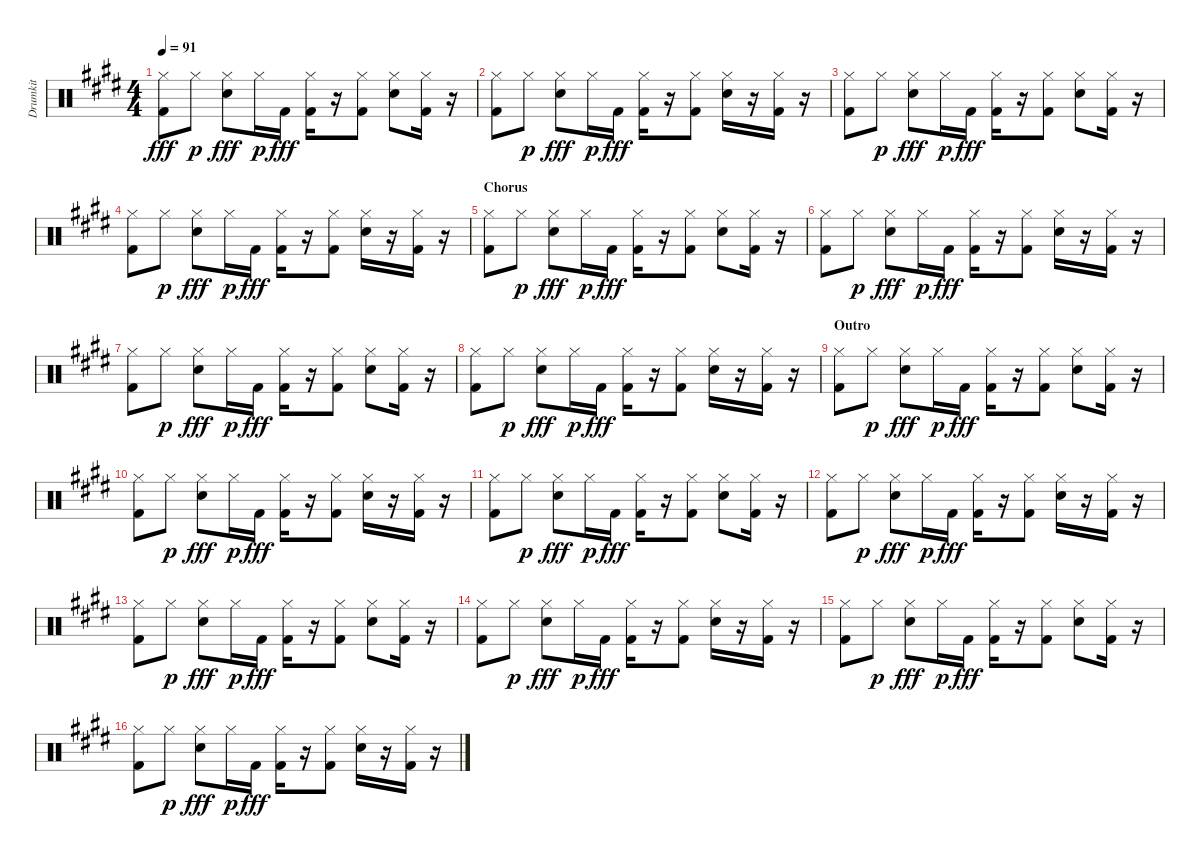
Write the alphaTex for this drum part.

\track ("Drumkit" "Drumkit") {instrument percussion}
\staff {score}
\articulation defaults
\ts (4 4)
\tempo 91
\clef neutral
\ks e
("Kick (hit) 2" "Hi-Hat (closed)").8{dy fff} "Hi-Hat (closed)".8{dy p} ("Snare (hit) 2" "Hi-Hat (closed)").8{dy fff} "Hi-Hat (closed)".16{dy p} "Kick (hit) 2".16{dy fff} ("Kick (hit) 2" "Hi-Hat (closed)").16 r.16 ("Kick (hit) 2" "Hi-Hat (closed)").8 ("Snare (hit) 2" "Hi-Hat (closed)").8 ("Kick (hit) 2" "Hi-Hat (closed)").16 r.16 |
("Kick (hit) 2" "Hi-Hat (closed)").8 "Hi-Hat (closed)".8{dy p} ("Snare (hit) 2" "Hi-Hat (closed)").8{dy fff} "Hi-Hat (closed)".16{dy p} "Kick (hit) 2".16{dy fff} ("Kick (hit) 2" "Hi-Hat (closed)").16 r.16 ("Kick (hit) 2" "Hi-Hat (closed)").8 ("Snare (hit) 2" "Hi-Hat (closed)").16 r.16 ("Kick (hit) 2" "Hi-Hat (closed)").16 r.16 |
("Kick (hit) 2" "Hi-Hat (closed)").8 "Hi-Hat (closed)".8{dy p} ("Snare (hit) 2" "Hi-Hat (closed)").8{dy fff} "Hi-Hat (closed)".16{dy p} "Kick (hit) 2".16{dy fff} ("Kick (hit) 2" "Hi-Hat (closed)").16 r.16 ("Kick (hit) 2" "Hi-Hat (closed)").8 ("Snare (hit) 2" "Hi-Hat (closed)").8 ("Kick (hit) 2" "Hi-Hat (closed)").16 r.16 |
("Kick (hit) 2" "Hi-Hat (closed)").8 "Hi-Hat (closed)".8{dy p} ("Snare (hit) 2" "Hi-Hat (closed)").8{dy fff} "Hi-Hat (closed)".16{dy p} "Kick (hit) 2".16{dy fff} ("Kick (hit) 2" "Hi-Hat (closed)").16 r.16 ("Kick (hit) 2" "Hi-Hat (closed)").8 ("Snare (hit) 2" "Hi-Hat (closed)").16 r.16 ("Kick (hit) 2" "Hi-Hat (closed)").16 r.16 |
\section ("" "Chorus")
("Kick (hit) 2" "Hi-Hat (closed)").8 "Hi-Hat (closed)".8{dy p} ("Snare (hit) 2" "Hi-Hat (closed)").8{dy fff} "Hi-Hat (closed)".16{dy p} "Kick (hit) 2".16{dy fff} ("Kick (hit) 2" "Hi-Hat (closed)").16 r.16 ("Kick (hit) 2" "Hi-Hat (closed)").8 ("Snare (hit) 2" "Hi-Hat (closed)").8 ("Kick (hit) 2" "Hi-Hat (closed)").16 r.16 |
("Kick (hit) 2" "Hi-Hat (closed)").8 "Hi-Hat (closed)".8{dy p} ("Snare (hit) 2" "Hi-Hat (closed)").8{dy fff} "Hi-Hat (closed)".16{dy p} "Kick (hit) 2".16{dy fff} ("Kick (hit) 2" "Hi-Hat (closed)").16 r.16 ("Kick (hit) 2" "Hi-Hat (closed)").8 ("Snare (hit) 2" "Hi-Hat (closed)").16 r.16 ("Kick (hit) 2" "Hi-Hat (closed)").16 r.16 |
("Kick (hit) 2" "Hi-Hat (closed)").8 "Hi-Hat (closed)".8{dy p} ("Snare (hit) 2" "Hi-Hat (closed)").8{dy fff} "Hi-Hat (closed)".16{dy p} "Kick (hit) 2".16{dy fff} ("Kick (hit) 2" "Hi-Hat (closed)").16 r.16 ("Kick (hit) 2" "Hi-Hat (closed)").8 ("Snare (hit) 2" "Hi-Hat (closed)").8 ("Kick (hit) 2" "Hi-Hat (closed)").16 r.16 |
("Kick (hit) 2" "Hi-Hat (closed)").8 "Hi-Hat (closed)".8{dy p} ("Snare (hit) 2" "Hi-Hat (closed)").8{dy fff} "Hi-Hat (closed)".16{dy p} "Kick (hit) 2".16{dy fff} ("Kick (hit) 2" "Hi-Hat (closed)").16 r.16 ("Kick (hit) 2" "Hi-Hat (closed)").8 ("Snare (hit) 2" "Hi-Hat (closed)").16 r.16 ("Kick (hit) 2" "Hi-Hat (closed)").16 r.16 |
\section ("" "Outro")
("Kick (hit) 2" "Hi-Hat (closed)").8 "Hi-Hat (closed)".8{dy p} ("Snare (hit) 2" "Hi-Hat (closed)").8{dy fff} "Hi-Hat (closed)".16{dy p} "Kick (hit) 2".16{dy fff} ("Kick (hit) 2" "Hi-Hat (closed)").16 r.16 ("Kick (hit) 2" "Hi-Hat (closed)").8 ("Snare (hit) 2" "Hi-Hat (closed)").8 ("Kick (hit) 2" "Hi-Hat (closed)").16 r.16 |
("Kick (hit) 2" "Hi-Hat (closed)").8 "Hi-Hat (closed)".8{dy p} ("Snare (hit) 2" "Hi-Hat (closed)").8{dy fff} "Hi-Hat (closed)".16{dy p} "Kick (hit) 2".16{dy fff} ("Kick (hit) 2" "Hi-Hat (closed)").16 r.16 ("Kick (hit) 2" "Hi-Hat (closed)").8 ("Snare (hit) 2" "Hi-Hat (closed)").16 r.16 ("Kick (hit) 2" "Hi-Hat (closed)").16 r.16 |
("Kick (hit) 2" "Hi-Hat (closed)").8 "Hi-Hat (closed)".8{dy p} ("Snare (hit) 2" "Hi-Hat (closed)").8{dy fff} "Hi-Hat (closed)".16{dy p} "Kick (hit) 2".16{dy fff} ("Kick (hit) 2" "Hi-Hat (closed)").16 r.16 ("Kick (hit) 2" "Hi-Hat (closed)").8 ("Snare (hit) 2" "Hi-Hat (closed)").8 ("Kick (hit) 2" "Hi-Hat (closed)").16 r.16 |
("Kick (hit) 2" "Hi-Hat (closed)").8 "Hi-Hat (closed)".8{dy p} ("Snare (hit) 2" "Hi-Hat (closed)").8{dy fff} "Hi-Hat (closed)".16{dy p} "Kick (hit) 2".16{dy fff} ("Kick (hit) 2" "Hi-Hat (closed)").16 r.16 ("Kick (hit) 2" "Hi-Hat (closed)").8 ("Snare (hit) 2" "Hi-Hat (closed)").16 r.16 ("Kick (hit) 2" "Hi-Hat (closed)").16 r.16 |
("Kick (hit) 2" "Hi-Hat (closed)").8 "Hi-Hat (closed)".8{dy p} ("Snare (hit) 2" "Hi-Hat (closed)").8{dy fff} "Hi-Hat (closed)".16{dy p} "Kick (hit) 2".16{dy fff} ("Kick (hit) 2" "Hi-Hat (closed)").16 r.16 ("Kick (hit) 2" "Hi-Hat (closed)").8 ("Snare (hit) 2" "Hi-Hat (closed)").8 ("Kick (hit) 2" "Hi-Hat (closed)").16 r.16 |
("Kick (hit) 2" "Hi-Hat (closed)").8 "Hi-Hat (closed)".8{dy p} ("Snare (hit) 2" "Hi-Hat (closed)").8{dy fff} "Hi-Hat (closed)".16{dy p} "Kick (hit) 2".16{dy fff} ("Kick (hit) 2" "Hi-Hat (closed)").16 r.16 ("Kick (hit) 2" "Hi-Hat (closed)").8 ("Snare (hit) 2" "Hi-Hat (closed)").16 r.16 ("Kick (hit) 2" "Hi-Hat (closed)").16 r.16 |
("Kick (hit) 2" "Hi-Hat (closed)").8 "Hi-Hat (closed)".8{dy p} ("Snare (hit) 2" "Hi-Hat (closed)").8{dy fff} "Hi-Hat (closed)".16{dy p} "Kick (hit) 2".16{dy fff} ("Kick (hit) 2" "Hi-Hat (closed)").16 r.16 ("Kick (hit) 2" "Hi-Hat (closed)").8 ("Snare (hit) 2" "Hi-Hat (closed)").8 ("Kick (hit) 2" "Hi-Hat (closed)").16 r.16 |
("Kick (hit) 2" "Hi-Hat (closed)").8 "Hi-Hat (closed)".8{dy p} ("Snare (hit) 2" "Hi-Hat (closed)").8{dy fff} "Hi-Hat (closed)".16{dy p} "Kick (hit) 2".16{dy fff} ("Kick (hit) 2" "Hi-Hat (closed)").16 r.16 ("Kick (hit) 2" "Hi-Hat (closed)").8 ("Snare (hit) 2" "Hi-Hat (closed)").16 r.16 ("Kick (hit) 2" "Hi-Hat (closed)").16 r.16
